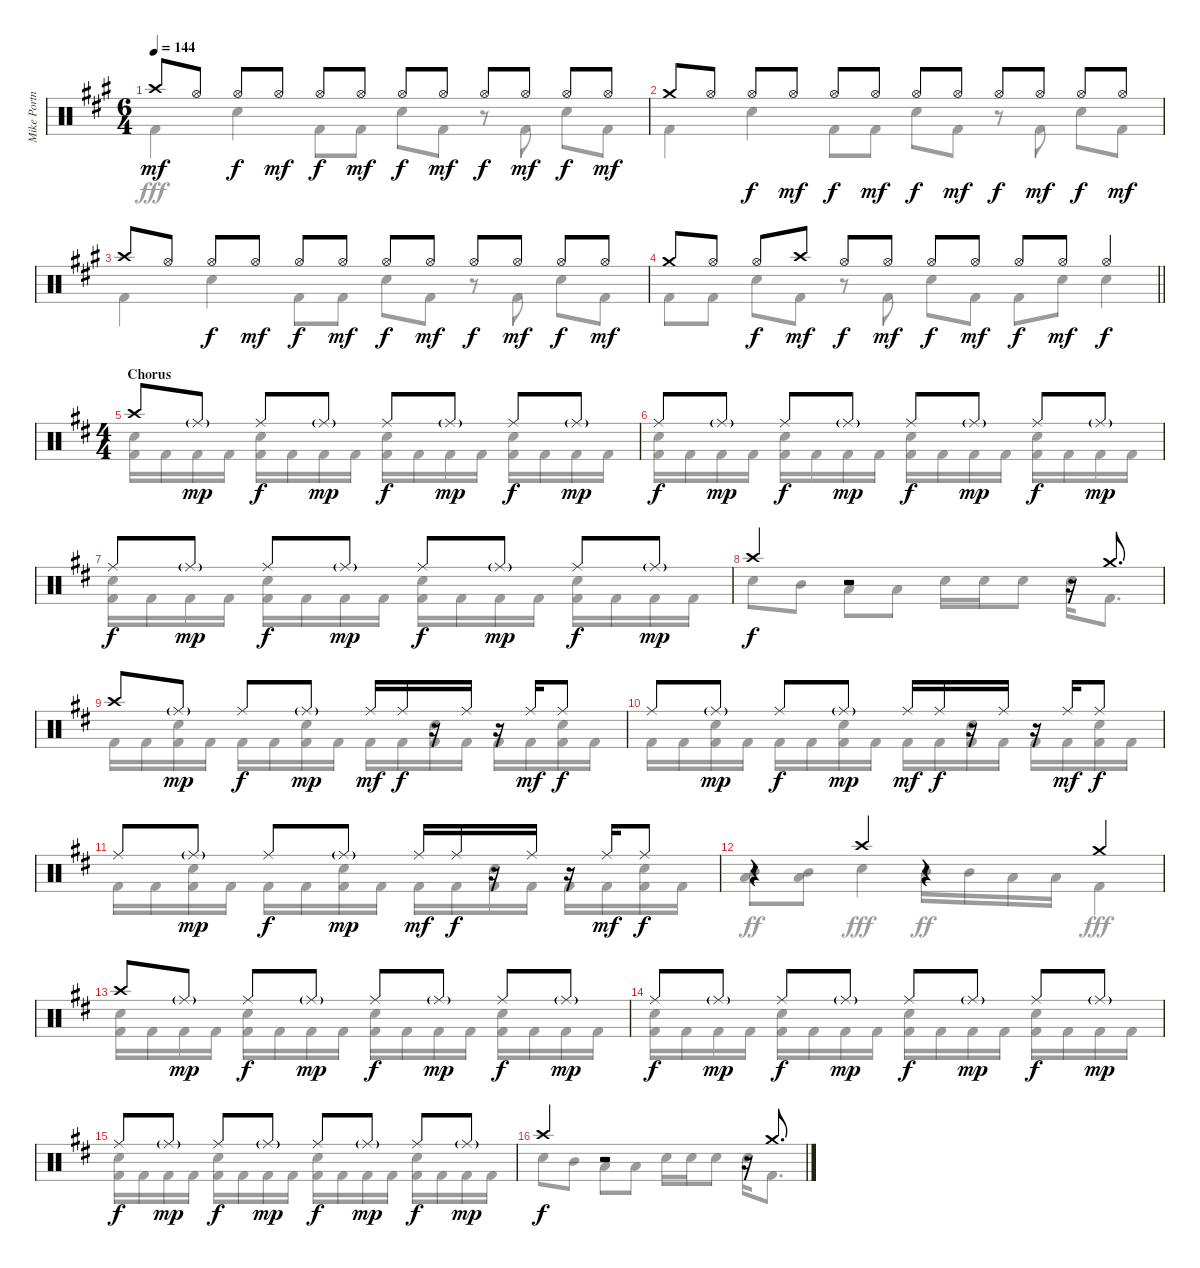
\track ("Mike Portnoy Drums" "Mike Portn") {instrument percussion}
\staff {score}
\articulation defaults
\voice
\ts (6 4)
\tempo 144
\clef neutral
\ks f#minor "Crash high (hit)".8{dy mf} "Hi-Hat (open)".8 "Hi-Hat (open)".8{dy f} "Hi-Hat (open)".8{dy mf} "Hi-Hat (open)".8{dy f} "Hi-Hat (open)".8{dy mf} "Hi-Hat (open)".8{dy f} "Hi-Hat (open)".8{dy mf} "Hi-Hat (open)".8{dy f} "Hi-Hat (open)".8{dy mf} "Hi-Hat (open)".8{dy f} "Hi-Hat (open)".8{dy mf}
|
"Crash medium (hit)".8 "Hi-Hat (open)".8 "Hi-Hat (open)".8{dy f} "Hi-Hat (open)".8{dy mf} "Hi-Hat (open)".8{dy f} "Hi-Hat (open)".8{dy mf} "Hi-Hat (open)".8{dy f} "Hi-Hat (open)".8{dy mf} "Hi-Hat (open)".8{dy f} "Hi-Hat (open)".8{dy mf} "Hi-Hat (open)".8{dy f} "Hi-Hat (open)".8{dy mf} |
"Crash high (hit)".8 "Hi-Hat (open)".8 "Hi-Hat (open)".8{dy f} "Hi-Hat (open)".8{dy mf} "Hi-Hat (open)".8{dy f} "Hi-Hat (open)".8{dy mf} "Hi-Hat (open)".8{dy f} "Hi-Hat (open)".8{dy mf} "Hi-Hat (open)".8{dy f} "Hi-Hat (open)".8{dy mf} "Hi-Hat (open)".8{dy f} "Hi-Hat (open)".8{dy mf} |
\barLineRight lightlight "Crash medium (hit)".8 "Hi-Hat (open)".8 "Hi-Hat (open)".8{dy f} "Crash high (hit)".8{dy mf} "Hi-Hat (open)".8{dy f} "Hi-Hat (open)".8{dy mf} "Hi-Hat (open)".8{dy f} "Hi-Hat (open)".8{dy mf} "Hi-Hat (open)".8{dy f} "Hi-Hat (open)".8{dy mf} "Hi-Hat (open)".4{dy f}
|
\ts (4 4)
\section ("" "Chorus")
\ks bminor "Crash high (hit)".8 "Ride (middle)"{g}.8{dy mp} "Ride (middle)".8{dy f} "Ride (middle)"{g}.8{dy mp} "Ride (middle)".8{dy f} "Ride (middle)"{g}.8{dy mp} "Ride (middle)".8{dy f} "Ride (middle)"{g}.8{dy mp}
|
"Ride (middle)".8{dy f} "Ride (middle)"{g}.8{dy mp} "Ride (middle)".8{dy f} "Ride (middle)"{g}.8{dy mp} "Ride (middle)".8{dy f} "Ride (middle)"{g}.8{dy mp} "Ride (middle)".8{dy f} "Ride (middle)"{g}.8{dy mp} |
"Ride (middle)".8{dy f} "Ride (middle)"{g}.8{dy mp} "Ride (middle)".8{dy f} "Ride (middle)"{g}.8{dy mp} "Ride (middle)".8{dy f} "Ride (middle)"{g}.8{dy mp} "Ride (middle)".8{dy f} "Ride (middle)"{g}.8{dy mp} |
"Crash high (hit)".4{dy f} r.2 r.16 "Crash medium (hit)".8{d} |
"Crash high (hit)".8 "Ride (middle)"{g}.8{dy mp} "Ride (middle)".8{dy f} "Ride (middle)"{g}.8{dy mp} "Ride (middle)".16{dy mf} "Ride (middle)".16{dy f} r.16 "Ride (middle)".16 r.16 "Ride (middle)".16{dy mf} "Ride (middle)".8{dy f} |
"Ride (middle)".8 "Ride (middle)"{g}.8{dy mp} "Ride (middle)".8{dy f} "Ride (middle)"{g}.8{dy mp} "Ride (middle)".16{dy mf} "Ride (middle)".16{dy f} r.16 "Ride (middle)".16 r.16 "Ride (middle)".16{dy mf} "Ride (middle)".8{dy f} |
"Ride (middle)".8 "Ride (middle)"{g}.8{dy mp} "Ride (middle)".8{dy f} "Ride (middle)"{g}.8{dy mp} "Ride (middle)".16{dy mf} "Ride (middle)".16{dy f} r.16 "Ride (middle)".16 r.16 "Ride (middle)".16{dy mf} "Ride (middle)".8{dy f} |
r.4 "Crash high (hit)".4 r.4 "Crash medium (hit)".4 |
"Crash high (hit)".8 "Ride (middle)"{g}.8{dy mp} "Ride (middle)".8{dy f} "Ride (middle)"{g}.8{dy mp} "Ride (middle)".8{dy f} "Ride (middle)"{g}.8{dy mp} "Ride (middle)".8{dy f} "Ride (middle)"{g}.8{dy mp} |
"Ride (middle)".8{dy f} "Ride (middle)"{g}.8{dy mp} "Ride (middle)".8{dy f} "Ride (middle)"{g}.8{dy mp} "Ride (middle)".8{dy f} "Ride (middle)"{g}.8{dy mp} "Ride (middle)".8{dy f} "Ride (middle)"{g}.8{dy mp} |
"Ride (middle)".8{dy f} "Ride (middle)"{g}.8{dy mp} "Ride (middle)".8{dy f} "Ride (middle)"{g}.8{dy mp} "Ride (middle)".8{dy f} "Ride (middle)"{g}.8{dy mp} "Ride (middle)".8{dy f} "Ride (middle)"{g}.8{dy mp} |
"Crash high (hit)".4{dy f} r.2 r.16 "Crash medium (hit)".8{d}
\voice
\clef neutral
\ottava regular
\simile none
\ks f#minor "Kick (hit) 2".4{dy fff} "Snare (hit) 2".4 "Kick (hit) 2".8 "Kick (hit) 2".8 "Snare (hit) 2".8 "Kick (hit) 2".8
r.8 "Kick (hit) 2".8 "Snare (hit) 2".8 "Kick (hit) 2".8 |
"Kick (hit) 2".4 "Snare (hit) 2".4 "Kick (hit) 2".8 "Kick (hit) 2".8 "Snare (hit) 2".8 "Kick (hit) 2".8 r.8 "Kick (hit) 2".8 "Snare (hit) 2".8 "Kick (hit) 2".8 |
"Kick (hit) 2".4 "Snare (hit) 2".4 "Kick (hit) 2".8 "Kick (hit) 2".8 "Snare (hit) 2".8 "Kick (hit) 2".8 r.8 "Kick (hit) 2".8 "Snare (hit) 2".8 "Kick (hit) 2".8 |
\barLineRight lightlight "Kick (hit) 2".8 "Kick (hit) 2".8 "Snare (hit) 2".8 "Kick (hit) 2".8
r.8 "Kick (hit) 2".8 "Snare (hit) 2".8 "Kick (hit) 2".8 "Kick (hit) 2".8 "Snare (hit) 2".8 "Snare (hit) 2".4 |
\ks bminor
("Snare (hit) 2" "Kick (hit) 2").16 "Kick (hit) 2".16 "Kick (hit) 2".16 "Kick (hit) 2".16 ("Snare (hit) 2" "Kick (hit) 2").16 "Kick (hit) 2".16 "Kick (hit) 2".16 "Kick (hit) 2".16 ("Snare (hit) 2" "Kick (hit) 2").16 "Kick (hit) 2".16 "Kick (hit) 2".16 "Kick (hit) 2".16 ("Snare (hit) 2" "Kick (hit) 2").16 "Kick (hit) 2".16 "Kick (hit) 2".16 "Kick (hit) 2".16 |
("Snare (hit) 2" "Kick (hit) 2").16 "Kick (hit) 2".16 "Kick (hit) 2".16 "Kick (hit) 2".16 ("Snare (hit) 2" "Kick (hit) 2").16 "Kick (hit) 2".16 "Kick (hit) 2".16 "Kick (hit) 2".16 ("Snare (hit) 2" "Kick (hit) 2").16 "Kick (hit) 2".16 "Kick (hit) 2".16 "Kick (hit) 2".16 ("Snare (hit) 2" "Kick (hit) 2").16 "Kick (hit) 2".16 "Kick (hit) 2".16 "Kick (hit) 2".16 |
("Snare (hit) 2" "Kick (hit) 2").16 "Kick (hit) 2".16 "Kick (hit) 2".16 "Kick (hit) 2".16 ("Snare (hit) 2" "Kick (hit) 2").16 "Kick (hit) 2".16 "Kick (hit) 2".16 "Kick (hit) 2".16 ("Snare (hit) 2" "Kick (hit) 2").16 "Kick (hit) 2".16 "Kick (hit) 2".16 "Kick (hit) 2".16 ("Snare (hit) 2" "Kick (hit) 2").16 "Kick (hit) 2".16 "Kick (hit) 2".16 "Kick (hit) 2".16 |
"Snare (hit) 2".8 "Mid Tom (hit)".8 "Low Tom (hit)".8 "Low Tom (hit)".8 "Snare (hit) 2".16 "Snare (hit) 2".16 "Snare (hit) 2".8 "Snare (hit) 2".16 "Kick (hit) 2".8{d} |
"Kick (hit) 2".16 "Kick (hit) 2".16 ("Snare (hit) 2" "Kick (hit) 2").16 "Kick (hit) 2".16 "Kick (hit) 2".16 "Kick (hit) 2".16 ("Snare (hit) 2" "Kick (hit) 2").16 "Kick (hit) 2".16 "Kick (hit) 2".16 "Kick (hit) 2".16 ("Snare (hit) 2" "Kick (hit) 2").16 "Kick (hit) 2".16 "Kick (hit) 2".16 "Kick (hit) 2".16 ("Snare (hit) 2" "Kick (hit) 2").16 "Kick (hit) 2".16 |
"Kick (hit) 2".16 "Kick (hit) 2".16 ("Snare (hit) 2" "Kick (hit) 2").16 "Kick (hit) 2".16 "Kick (hit) 2".16 "Kick (hit) 2".16 ("Snare (hit) 2" "Kick (hit) 2").16 "Kick (hit) 2".16 "Kick (hit) 2".16 "Kick (hit) 2".16 ("Snare (hit) 2" "Kick (hit) 2").16 "Kick (hit) 2".16 "Kick (hit) 2".16 "Kick (hit) 2".16 ("Snare (hit) 2" "Kick (hit) 2").16 "Kick (hit) 2".16 |
"Kick (hit) 2".16 "Kick (hit) 2".16 ("Snare (hit) 2" "Kick (hit) 2").16 "Kick (hit) 2".16 "Kick (hit) 2".16 "Kick (hit) 2".16 ("Snare (hit) 2" "Kick (hit) 2").16 "Kick (hit) 2".16 "Kick (hit) 2".16 "Kick (hit) 2".16 ("Snare (hit) 2" "Kick (hit) 2").16 "Kick (hit) 2".16 "Kick (hit) 2".16 "Kick (hit) 2".16 ("Snare (hit) 2" "Kick (hit) 2").16 "Kick (hit) 2".16 |
("Mid Tom (hit)" "Low Tom (hit)").8{dy ff} ("Mid Tom (hit)" "Low Tom (hit)").8 "Snare (hit) 2".4{dy fff} "Mid Tom (hit)".16{dy ff} "Mid Tom (hit)".16 "Low Tom (hit)".16 "Low Tom (hit)".16 "Kick (hit) 2".4{dy fff} |
("Snare (hit) 2" "Kick (hit) 2").16 "Kick (hit) 2".16 "Kick (hit) 2".16 "Kick (hit) 2".16 ("Snare (hit) 2" "Kick (hit) 2").16 "Kick (hit) 2".16 "Kick (hit) 2".16 "Kick (hit) 2".16 ("Snare (hit) 2" "Kick (hit) 2").16 "Kick (hit) 2".16 "Kick (hit) 2".16 "Kick (hit) 2".16 ("Snare (hit) 2" "Kick (hit) 2").16 "Kick (hit) 2".16 "Kick (hit) 2".16 "Kick (hit) 2".16 |
("Snare (hit) 2" "Kick (hit) 2").16 "Kick (hit) 2".16 "Kick (hit) 2".16 "Kick (hit) 2".16 ("Snare (hit) 2" "Kick (hit) 2").16 "Kick (hit) 2".16 "Kick (hit) 2".16 "Kick (hit) 2".16 ("Snare (hit) 2" "Kick (hit) 2").16 "Kick (hit) 2".16 "Kick (hit) 2".16 "Kick (hit) 2".16 ("Snare (hit) 2" "Kick (hit) 2").16 "Kick (hit) 2".16 "Kick (hit) 2".16 "Kick (hit) 2".16 |
("Snare (hit) 2" "Kick (hit) 2").16 "Kick (hit) 2".16 "Kick (hit) 2".16 "Kick (hit) 2".16 ("Snare (hit) 2" "Kick (hit) 2").16 "Kick (hit) 2".16 "Kick (hit) 2".16 "Kick (hit) 2".16 ("Snare (hit) 2" "Kick (hit) 2").16 "Kick (hit) 2".16 "Kick (hit) 2".16 "Kick (hit) 2".16 ("Snare (hit) 2" "Kick (hit) 2").16 "Kick (hit) 2".16 "Kick (hit) 2".16 "Kick (hit) 2".16 |
"Snare (hit) 2".8 "Mid Tom (hit)".8 "Low Tom (hit)".8 "Low Tom (hit)".8 "Snare (hit) 2".16 "Snare (hit) 2".16 "Snare (hit) 2".8 "Snare (hit) 2".16 "Kick (hit) 2".8{d}
